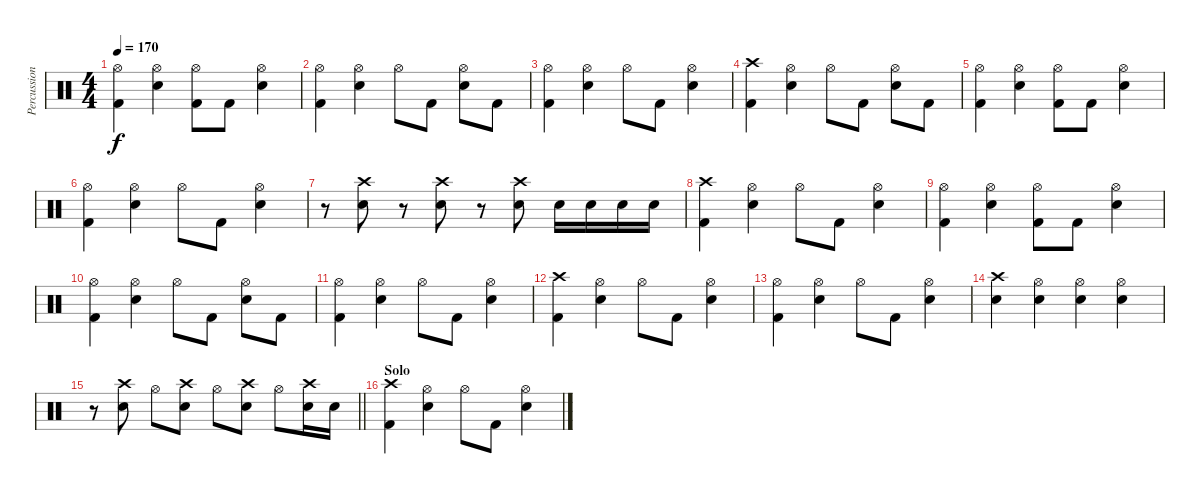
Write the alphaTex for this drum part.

\track ("Percussion" "Percussion") {instrument percussion}
\staff {score}
\articulation defaults
\ts (4 4)
\tempo 170
\clef neutral
\ks c
("Hi-Hat (open)" "Kick (hit) 2").4{dy f} ("Hi-Hat (open)" "Snare (hit) 2").4 ("Hi-Hat (open)" "Kick (hit) 2").8 "Kick (hit) 2".8 ("Hi-Hat (open)" "Snare (hit) 2").4 |
("Hi-Hat (open)" "Kick (hit) 2").4 ("Hi-Hat (open)" "Snare (hit) 2").4 "Hi-Hat (open)".8 "Kick (hit) 2".8 ("Hi-Hat (open)" "Snare (hit) 2").8 "Kick (hit) 2".8 |
("Hi-Hat (open)" "Kick (hit) 2").4 ("Hi-Hat (open)" "Snare (hit) 2").4 "Hi-Hat (open)".8 "Kick (hit) 2".8 ("Hi-Hat (open)" "Snare (hit) 2").4 |
("Crash high (hit)" "Kick (hit) 2").4 ("Hi-Hat (open)" "Snare (hit) 2").4 "Hi-Hat (open)".8 "Kick (hit) 2".8 ("Hi-Hat (open)" "Snare (hit) 2").8 "Kick (hit) 2".8 |
("Hi-Hat (open)" "Kick (hit) 2").4 ("Hi-Hat (open)" "Snare (hit) 2").4 ("Hi-Hat (open)" "Kick (hit) 2").8 "Kick (hit) 2".8 ("Hi-Hat (open)" "Snare (hit) 2").4 |
("Hi-Hat (open)" "Kick (hit) 2").4 ("Hi-Hat (open)" "Snare (hit) 2").4 "Hi-Hat (open)".8 "Kick (hit) 2".8 ("Hi-Hat (open)" "Snare (hit) 2").4 |
r.8 ("Crash high (hit)" "Snare (hit) 2").8 r.8 ("Crash high (hit)" "Snare (hit) 2").8 r.8 ("Crash high (hit)" "Snare (hit) 2").8 "Snare (hit) 2".16 "Snare (hit) 2".16 "Snare (hit) 2".16 "Snare (hit) 2".16 |
("Crash high (hit)" "Kick (hit) 2").4 ("Hi-Hat (open)" "Snare (hit) 2").4 "Hi-Hat (open)".8 "Kick (hit) 2".8 ("Hi-Hat (open)" "Snare (hit) 2").4 |
("Hi-Hat (open)" "Kick (hit) 2").4 ("Hi-Hat (open)" "Snare (hit) 2").4 ("Hi-Hat (open)" "Kick (hit) 2").8 "Kick (hit) 2".8 ("Hi-Hat (open)" "Snare (hit) 2").4 |
("Hi-Hat (open)" "Kick (hit) 2").4 ("Hi-Hat (open)" "Snare (hit) 2").4 "Hi-Hat (open)".8 "Kick (hit) 2".8 ("Hi-Hat (open)" "Snare (hit) 2").8 "Kick (hit) 2".8 |
("Hi-Hat (open)" "Kick (hit) 2").4 ("Hi-Hat (open)" "Snare (hit) 2").4 "Hi-Hat (open)".8 "Kick (hit) 2".8 ("Hi-Hat (open)" "Snare (hit) 2").4 |
("Crash high (hit)" "Kick (hit) 2").4 ("Hi-Hat (open)" "Snare (hit) 2").4 "Hi-Hat (open)".8 "Kick (hit) 2".8 ("Hi-Hat (open)" "Snare (hit) 2").4 |
("Hi-Hat (open)" "Kick (hit) 2").4 ("Hi-Hat (open)" "Snare (hit) 2").4 "Hi-Hat (open)".8 "Kick (hit) 2".8 ("Hi-Hat (open)" "Snare (hit) 2").4 |
("Crash high (hit)" "Snare (hit) 2").4 ("Hi-Hat (open)" "Snare (hit) 2").4 ("Hi-Hat (open)" "Snare (hit) 2").4 ("Hi-Hat (open)" "Snare (hit) 2").4 |
\barLineRight lightlight
r.8 ("Crash high (hit)" "Snare (hit) 2").8 "Hi-Hat (open)".8 ("Crash high (hit)" "Snare (hit) 2").8 "Hi-Hat (open)".8 ("Crash high (hit)" "Snare (hit) 2").8 "Hi-Hat (open)".8 ("Crash high (hit)" "Snare (hit) 2").16 "Snare (hit) 2".16 |
\section ("" "Solo")
("Crash high (hit)" "Kick (hit) 2").4 ("Hi-Hat (open)" "Snare (hit) 2").4 "Hi-Hat (open)".8 "Kick (hit) 2".8 ("Hi-Hat (open)" "Snare (hit) 2").4
